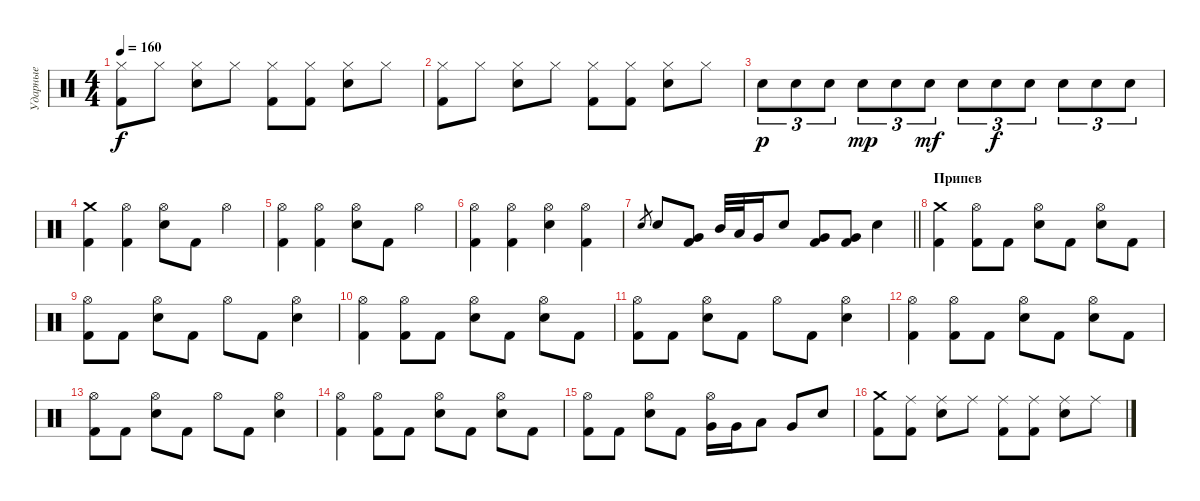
\track ("Ударные" "Ударные") {instrument percussion}
\staff {score}
\articulation defaults
\ts (4 4)
\tempo 160
\clef neutral
\ks c
("Hi-Hat (closed)" "Kick (hit) 2").8{dy f} "Hi-Hat (closed)".8 ("Hi-Hat (closed)" "Snare (hit) 2").8 "Hi-Hat (closed)".8 ("Hi-Hat (closed)" "Kick (hit) 2").8 ("Hi-Hat (closed)" "Kick (hit) 2").8 ("Hi-Hat (closed)" "Snare (hit) 2").8 "Hi-Hat (closed)".8 |
("Hi-Hat (closed)" "Kick (hit) 2").8 "Hi-Hat (closed)".8 ("Hi-Hat (closed)" "Snare (hit) 2").8 "Hi-Hat (closed)".8 ("Hi-Hat (closed)" "Kick (hit) 2").8 ("Hi-Hat (closed)" "Kick (hit) 2").8 ("Hi-Hat (closed)" "Snare (hit) 2").8 "Hi-Hat (closed)".8 |
"Snare (hit) 2".8{tu (3 2) dy p} "Snare (hit) 2".8{tu (3 2)} "Snare (hit) 2".8{tu (3 2)} "Snare (hit) 2".8{tu (3 2) dy mp} "Snare (hit) 2".8{tu (3 2)} "Snare (hit) 2".8{tu (3 2) dy mf} "Snare (hit) 2".8{tu (3 2)} "Snare (hit) 2".8{tu (3 2) dy f} "Snare (hit) 2".8{tu (3 2)} "Snare (hit) 2".8{tu (3 2)} "Snare (hit) 2".8{tu (3 2)} "Snare (hit) 2".8{tu (3 2)} |
("Crash medium (hit)" "Kick (hit) 2").4 ("Hi-Hat (open)" "Kick (hit) 2").4 ("Hi-Hat (open)" "Snare (hit) 2").8 "Kick (hit) 2".8 "Hi-Hat (open)".4 |
("Hi-Hat (open)" "Kick (hit) 2").4 ("Hi-Hat (open)" "Kick (hit) 2").4 ("Hi-Hat (open)" "Snare (hit) 2").8 "Kick (hit) 2".8 "Hi-Hat (open)".4 |
("Hi-Hat (open)" "Kick (hit) 2").4 ("Hi-Hat (open)" "Kick (hit) 2").4 ("Hi-Hat (open)" "Snare (hit) 2").4 ("Hi-Hat (open)" "Kick (hit) 2").4 |
\barLineRight lightlight "Snare (hit) 2".8{gr} "Snare (hit) 2".8
("Very Low Tom (hit)" "Kick (hit) 2").8 "Mid Tom (hit)".32 "Low Tom (hit)".32 "Very Low Tom (hit)".16 "Snare (hit) 2".8 ("Very Low Tom (hit)" "Kick (hit) 2").8 ("Very Low Tom (hit)" "Kick (hit) 2").8 "Snare (hit) 2".4 |
\section ("" "Припев")
("Crash medium (hit)" "Kick (hit) 2").4 ("Hi-Hat (open)" "Kick (hit) 2").8 "Kick (hit) 2".8 ("Hi-Hat (open)" "Snare (hit) 2").8 "Kick (hit) 2".8 ("Hi-Hat (open)" "Snare (hit) 2").8 "Kick (hit) 2".8 |
("Hi-Hat (open)" "Kick (hit) 2").8 "Kick (hit) 2".8 ("Hi-Hat (open)" "Snare (hit) 2").8 "Kick (hit) 2".8 "Hi-Hat (open)".8 "Kick (hit) 2".8 ("Hi-Hat (open)" "Snare (hit) 2").4 |
("Hi-Hat (open)" "Kick (hit) 2").4 ("Hi-Hat (open)" "Kick (hit) 2").8 "Kick (hit) 2".8 ("Hi-Hat (open)" "Snare (hit) 2").8 "Kick (hit) 2".8 ("Hi-Hat (open)" "Snare (hit) 2").8 "Kick (hit) 2".8 |
("Hi-Hat (open)" "Kick (hit) 2").8 "Kick (hit) 2".8 ("Hi-Hat (open)" "Snare (hit) 2").8 "Kick (hit) 2".8 "Hi-Hat (open)".8 "Kick (hit) 2".8 ("Hi-Hat (open)" "Snare (hit) 2").4 |
("Hi-Hat (open)" "Kick (hit) 2").4 ("Hi-Hat (open)" "Kick (hit) 2").8 "Kick (hit) 2".8 ("Hi-Hat (open)" "Snare (hit) 2").8 "Kick (hit) 2".8 ("Hi-Hat (open)" "Snare (hit) 2").8 "Kick (hit) 2".8 |
("Hi-Hat (open)" "Kick (hit) 2").8 "Kick (hit) 2".8 ("Hi-Hat (open)" "Snare (hit) 2").8 "Kick (hit) 2".8 "Hi-Hat (open)".8 "Kick (hit) 2".8 ("Hi-Hat (open)" "Snare (hit) 2").4 |
("Hi-Hat (open)" "Kick (hit) 2").4 ("Hi-Hat (open)" "Kick (hit) 2").8 "Kick (hit) 2".8 ("Hi-Hat (open)" "Snare (hit) 2").8 "Kick (hit) 2".8 ("Hi-Hat (open)" "Snare (hit) 2").8 "Kick (hit) 2".8 |
("Hi-Hat (open)" "Kick (hit) 2").8 "Kick (hit) 2".8 ("Hi-Hat (open)" "Snare (hit) 2").8 "Kick (hit) 2".8 ("Hi-Hat (open)" "Very Low Tom (hit)").16 "Very Low Tom (hit)".16 "Low Tom (hit)".8 "Very Low Tom (hit)".8 "Snare (hit) 2".8 |
("Crash medium (hit)" "Kick (hit) 2").8 ("Ride (middle)" "Kick (hit) 2").8 ("Ride (middle)" "Snare (hit) 2").8 "Ride (middle)".8 ("Ride (middle)" "Kick (hit) 2").8 ("Ride (middle)" "Kick (hit) 2").8 ("Ride (middle)" "Snare (hit) 2").8 "Ride (middle)".8
